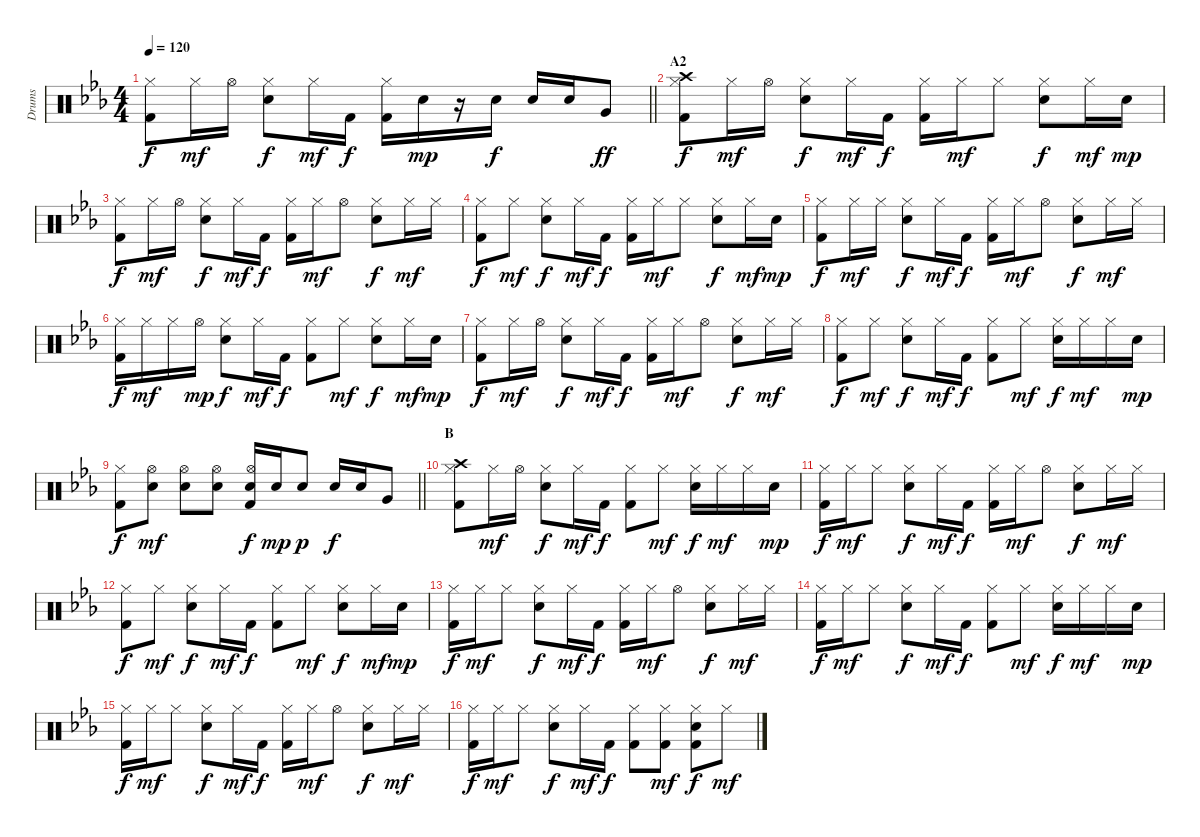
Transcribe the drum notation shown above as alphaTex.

\track ("Drums" "Drums") {instrument percussion}
\staff {score}
\articulation defaults
\ts (4 4)
\tempo 120
\clef neutral
\barLineRight lightlight
\ks eb
("Hi-Hat (closed)" "Kick (hit) 2").8{dy f} "Hi-Hat (closed)".16{dy mf} "Hi-Hat (open)".16 ("Hi-Hat (closed)" "Snare (hit) 2").8{dy f} "Hi-Hat (closed)".16{dy mf} "Kick (hit) 2".16{dy f} ("Hi-Hat (closed)" "Kick (hit) 2").16 "Snare (hit) 2".16{dy mp} r.16 "Snare (hit) 2".16{dy f} "Snare (hit) 2".16 "Snare (hit) 2".16 "Very Low Tom (hit)".8{dy ff} |
\section ("" "A2")
("Hi-Hat (closed)" "Crash high (hit)" "Kick (hit) 2").8{dy f} "Hi-Hat (closed)".16{dy mf} "Hi-Hat (open)".16 ("Hi-Hat (closed)" "Snare (hit) 2").8{dy f} "Hi-Hat (closed)".16{dy mf} "Kick (hit) 2".16{dy f} ("Hi-Hat (closed)" "Kick (hit) 2").16 "Hi-Hat (closed)".16{dy mf} "Hi-Hat (closed)".8 ("Hi-Hat (closed)" "Snare (hit) 2").8{dy f} "Hi-Hat (closed)".16{dy mf} "Snare (hit) 2".16{dy mp} |
("Hi-Hat (closed)" "Kick (hit) 2").8{dy f} "Hi-Hat (closed)".16{dy mf} "Hi-Hat (open)".16 ("Hi-Hat (closed)" "Snare (hit) 2").8{dy f} "Hi-Hat (closed)".16{dy mf} "Kick (hit) 2".16{dy f} ("Hi-Hat (closed)" "Kick (hit) 2").16 "Hi-Hat (closed)".16{dy mf} "Hi-Hat (open)".8 ("Hi-Hat (closed)" "Snare (hit) 2").8{dy f} "Hi-Hat (closed)".16{dy mf} "Hi-Hat (closed)".16 |
("Hi-Hat (closed)" "Kick (hit) 2").8{dy f} "Hi-Hat (closed)".8{dy mf} ("Hi-Hat (closed)" "Snare (hit) 2").8{dy f} "Hi-Hat (closed)".16{dy mf} "Kick (hit) 2".16{dy f} ("Hi-Hat (closed)" "Kick (hit) 2").16 "Hi-Hat (closed)".16{dy mf} "Hi-Hat (closed)".8 ("Hi-Hat (closed)" "Snare (hit) 2").8{dy f} "Hi-Hat (closed)".16{dy mf} "Snare (hit) 2".16{dy mp} |
("Hi-Hat (closed)" "Kick (hit) 2").8{dy f} "Hi-Hat (closed)".16{dy mf} "Hi-Hat (closed)".16 ("Hi-Hat (closed)" "Snare (hit) 2").8{dy f} "Hi-Hat (closed)".16{dy mf} "Kick (hit) 2".16{dy f} ("Hi-Hat (closed)" "Kick (hit) 2").16 "Hi-Hat (closed)".16{dy mf} "Hi-Hat (open)".8 ("Hi-Hat (closed)" "Snare (hit) 2").8{dy f} "Hi-Hat (closed)".16{dy mf} "Hi-Hat (closed)".16 |
("Hi-Hat (closed)" "Kick (hit) 2").16{dy f} "Hi-Hat (closed)".16{dy mf} "Hi-Hat (closed)".16 "Hi-Hat (open)".16{dy mp} ("Hi-Hat (closed)" "Snare (hit) 2").8{dy f} "Hi-Hat (closed)".16{dy mf} "Kick (hit) 2".16{dy f} ("Hi-Hat (closed)" "Kick (hit) 2").8 "Hi-Hat (closed)".8{dy mf} ("Hi-Hat (closed)" "Snare (hit) 2").8{dy f} "Hi-Hat (closed)".16{dy mf} "Snare (hit) 2".16{dy mp} |
("Hi-Hat (closed)" "Kick (hit) 2").8{dy f} "Hi-Hat (closed)".16{dy mf} "Hi-Hat (open)".16 ("Hi-Hat (closed)" "Snare (hit) 2").8{dy f} "Hi-Hat (closed)".16{dy mf} "Kick (hit) 2".16{dy f} ("Hi-Hat (closed)" "Kick (hit) 2").16 "Hi-Hat (closed)".16{dy mf} "Hi-Hat (open)".8 ("Hi-Hat (closed)" "Snare (hit) 2").8{dy f} "Hi-Hat (closed)".16{dy mf} "Hi-Hat (closed)".16 |
("Hi-Hat (closed)" "Kick (hit) 2").8{dy f} "Hi-Hat (closed)".8{dy mf} ("Hi-Hat (closed)" "Snare (hit) 2").8{dy f} "Hi-Hat (closed)".16{dy mf} "Kick (hit) 2".16{dy f} ("Hi-Hat (closed)" "Kick (hit) 2").8 "Hi-Hat (closed)".8{dy mf} ("Hi-Hat (closed)" "Snare (hit) 2").16{dy f} "Hi-Hat (closed)".16{dy mf} "Hi-Hat (closed)".16 "Snare (hit) 2".16{dy mp} |
\barLineRight lightlight
("Hi-Hat (closed)" "Kick (hit) 2").8{dy f} ("Hi-Hat (open)" "Snare (hit) 2").8{dy mf} ("Hi-Hat (open)" "Snare (hit) 2").8 ("Hi-Hat (open)" "Snare (hit) 2").8 ("Hi-Hat (open)" "Snare (hit) 2" "Kick (hit) 2").16{dy f} "Snare (hit) 2".16{dy mp} "Snare (hit) 2".8{dy p} "Snare (hit) 2".16{dy f} "Snare (hit) 2".16 "Very Low Tom (hit)".8 |
\section ("" "B")
("Hi-Hat (closed)" "Crash high (hit)" "Kick (hit) 2").8 "Hi-Hat (closed)".16{dy mf} "Hi-Hat (open)".16 ("Hi-Hat (closed)" "Snare (hit) 2").8{dy f} "Hi-Hat (closed)".16{dy mf} "Kick (hit) 2".16{dy f} ("Hi-Hat (closed)" "Kick (hit) 2").8 "Hi-Hat (closed)".8{dy mf} ("Hi-Hat (closed)" "Snare (hit) 2").16{dy f} "Hi-Hat (closed)".16{dy mf} "Hi-Hat (closed)".16 "Snare (hit) 2".16{dy mp} |
("Hi-Hat (closed)" "Kick (hit) 2").16{dy f} "Hi-Hat (closed)".16{dy mf} "Hi-Hat (closed)".8 ("Hi-Hat (closed)" "Snare (hit) 2").8{dy f} "Hi-Hat (closed)".16{dy mf} "Kick (hit) 2".16{dy f} ("Hi-Hat (closed)" "Kick (hit) 2").16 "Hi-Hat (closed)".16{dy mf} "Hi-Hat (open)".8 ("Hi-Hat (closed)" "Snare (hit) 2").8{dy f} "Hi-Hat (closed)".16{dy mf} "Hi-Hat (closed)".16 |
("Hi-Hat (closed)" "Kick (hit) 2").8{dy f} "Hi-Hat (closed)".8{dy mf} ("Hi-Hat (closed)" "Snare (hit) 2").8{dy f} "Hi-Hat (closed)".16{dy mf} "Kick (hit) 2".16{dy f} ("Hi-Hat (closed)" "Kick (hit) 2").8 "Hi-Hat (closed)".8{dy mf} ("Hi-Hat (closed)" "Snare (hit) 2").8{dy f} "Hi-Hat (closed)".16{dy mf} "Snare (hit) 2".16{dy mp} |
("Hi-Hat (closed)" "Kick (hit) 2").16{dy f} "Hi-Hat (closed)".16{dy mf} "Hi-Hat (closed)".8 ("Hi-Hat (closed)" "Snare (hit) 2").8{dy f} "Hi-Hat (closed)".16{dy mf} "Kick (hit) 2".16{dy f} ("Hi-Hat (closed)" "Kick (hit) 2").16 "Hi-Hat (closed)".16{dy mf} "Hi-Hat (open)".8 ("Hi-Hat (closed)" "Snare (hit) 2").8{dy f} "Hi-Hat (closed)".16{dy mf} "Hi-Hat (closed)".16 |
("Hi-Hat (closed)" "Kick (hit) 2").16{dy f} "Hi-Hat (closed)".16{dy mf} "Hi-Hat (closed)".8 ("Hi-Hat (closed)" "Snare (hit) 2").8{dy f} "Hi-Hat (closed)".16{dy mf} "Kick (hit) 2".16{dy f} ("Hi-Hat (closed)" "Kick (hit) 2").8 "Hi-Hat (closed)".8{dy mf} ("Hi-Hat (closed)" "Snare (hit) 2").16{dy f} "Hi-Hat (closed)".16{dy mf} "Hi-Hat (closed)".16 "Snare (hit) 2".16{dy mp} |
("Hi-Hat (closed)" "Kick (hit) 2").16{dy f} "Hi-Hat (closed)".16{dy mf} "Hi-Hat (closed)".8 ("Hi-Hat (closed)" "Snare (hit) 2").8{dy f} "Hi-Hat (closed)".16{dy mf} "Kick (hit) 2".16{dy f} ("Hi-Hat (closed)" "Kick (hit) 2").16 "Hi-Hat (closed)".16{dy mf} "Hi-Hat (open)".8 ("Hi-Hat (closed)" "Snare (hit) 2").8{dy f} "Hi-Hat (closed)".16{dy mf} "Hi-Hat (closed)".16 |
("Hi-Hat (closed)" "Kick (hit) 2").16{dy f} "Hi-Hat (closed)".16{dy mf} "Hi-Hat (closed)".8 ("Hi-Hat (closed)" "Snare (hit) 2").8{dy f} "Hi-Hat (closed)".16{dy mf} "Kick (hit) 2".16{dy f} ("Hi-Hat (closed)" "Kick (hit) 2").8 ("Hi-Hat (closed)" "Kick (hit) 2").8{dy mf} ("Hi-Hat (closed)" "Snare (hit) 2" "Kick (hit) 2").8{dy f} "Hi-Hat (closed)".8{dy mf}
